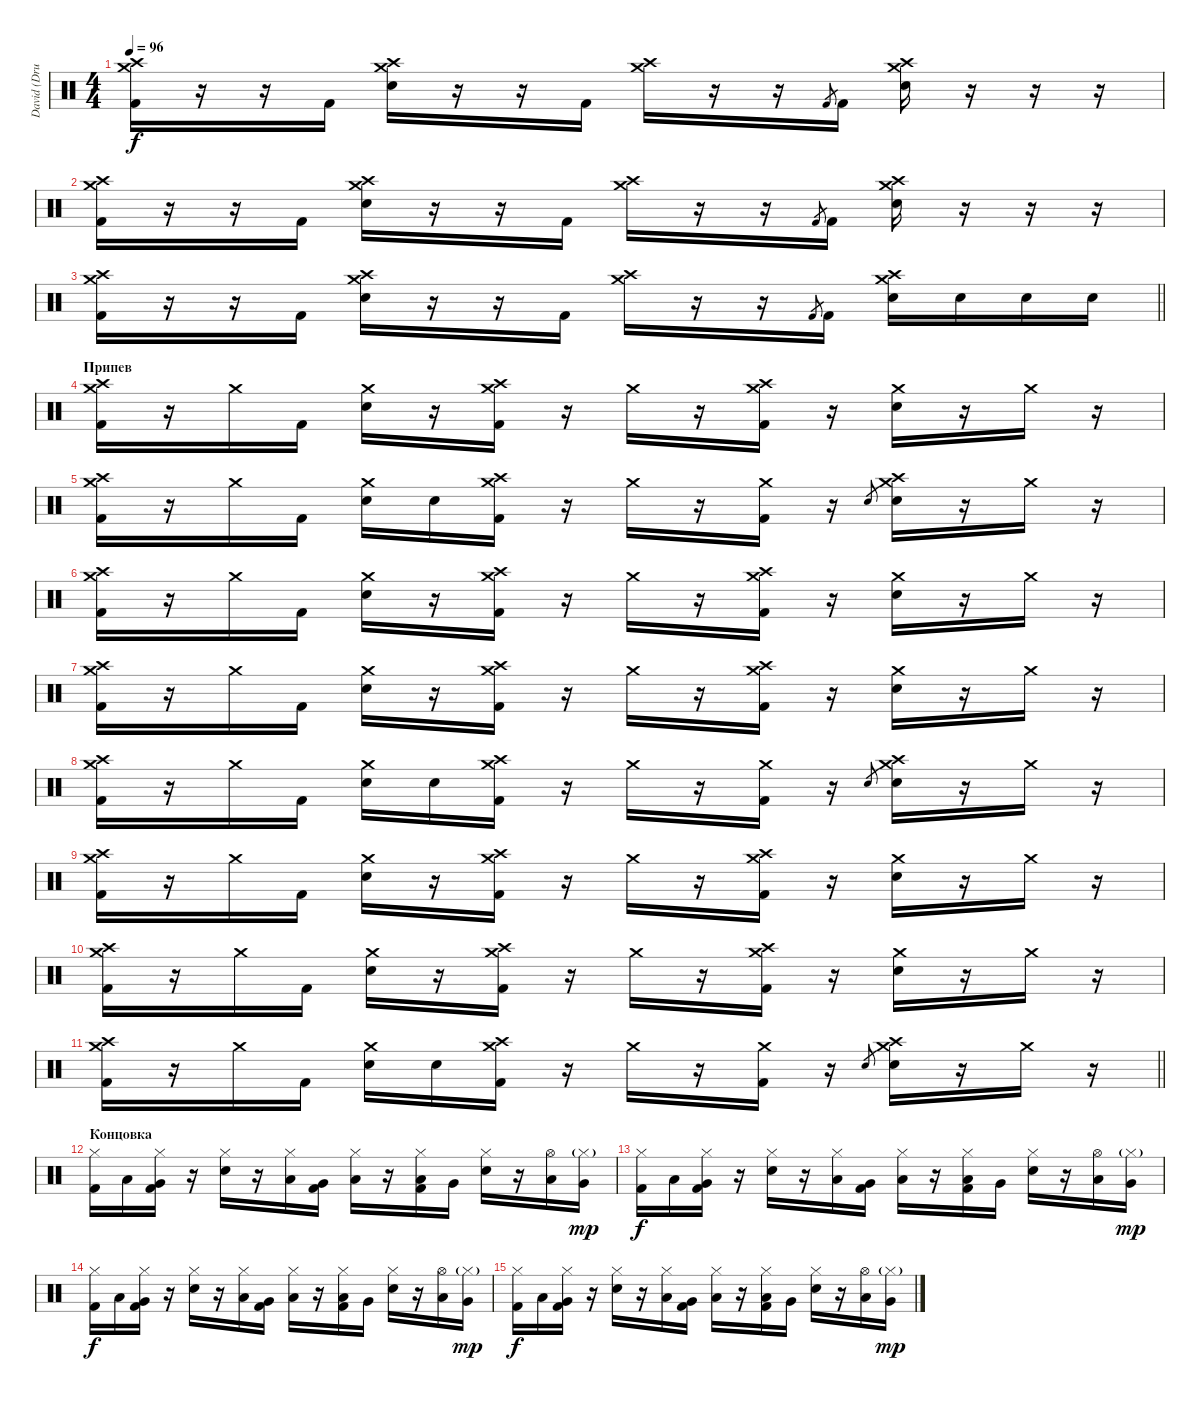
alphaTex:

\track ("David (Drums)" "David (Dru") {instrument percussion}
\staff {score}
\articulation defaults
\ts (4 4)
\tempo 96
\clef neutral
\ks c
("Crash high (hit)" "Crash medium (hit)" "Kick (hit) 2").16{dy f} r.16 r.16 "Kick (hit) 2".16 ("Crash high (hit)" "Crash medium (hit)" "Electric Snare (hit)").16 r.16 r.16 "Kick (hit) 2".16 ("Crash high (hit)" "Crash medium (hit)").16 r.16 r.16 "Kick (hit) 2".8{gr} "Kick (hit) 2".16 ("Crash high (hit)" "Crash medium (hit)" "Electric Snare (hit)").16 r.16 r.16 r.16 |
("Crash high (hit)" "Crash medium (hit)" "Kick (hit) 2").16 r.16 r.16 "Kick (hit) 2".16 ("Crash high (hit)" "Crash medium (hit)" "Electric Snare (hit)").16 r.16 r.16 "Kick (hit) 2".16 ("Crash high (hit)" "Crash medium (hit)").16 r.16 r.16 "Kick (hit) 2".8{gr} "Kick (hit) 2".16 ("Crash high (hit)" "Crash medium (hit)" "Electric Snare (hit)").16 r.16 r.16 r.16 |
\barLineRight lightlight
("Crash high (hit)" "Crash medium (hit)" "Kick (hit) 2").16 r.16 r.16 "Kick (hit) 2".16 ("Crash high (hit)" "Crash medium (hit)" "Electric Snare (hit)").16 r.16 r.16 "Kick (hit) 2".16 ("Crash high (hit)" "Crash medium (hit)").16 r.16 r.16 "Kick (hit) 2".8{gr} "Kick (hit) 2".16 ("Crash high (hit)" "Crash medium (hit)" "Electric Snare (hit)").16 "Electric Snare (hit)".16 "Electric Snare (hit)".16 "Electric Snare (hit)".16 |
\section ("" "Припев")
("Crash high (hit)" "Crash medium (hit)" "Kick (hit) 2").16 r.16 "Crash medium (hit)".16 "Kick (hit) 2".16 ("Crash medium (hit)" "Electric Snare (hit)").16 r.16 ("Crash high (hit)" "Crash medium (hit)" "Kick (hit) 2").16 r.16 "Crash medium (hit)".16 r.16 ("Crash high (hit)" "Crash medium (hit)" "Kick (hit) 2").16 r.16 ("Crash medium (hit)" "Electric Snare (hit)").16 r.16 "Crash medium (hit)".16 r.16 |
("Crash high (hit)" "Crash medium (hit)" "Kick (hit) 2").16 r.16 "Crash medium (hit)".16 "Kick (hit) 2".16 ("Crash medium (hit)" "Electric Snare (hit)").16 "Electric Snare (hit)".16 ("Crash high (hit)" "Crash medium (hit)" "Kick (hit) 2").16 r.16 "Crash medium (hit)".16 r.16 ("Crash medium (hit)" "Kick (hit) 2").16 r.16 "Electric Snare (hit)".8{gr} ("Crash high (hit)" "Crash medium (hit)" "Electric Snare (hit)").16 r.16 "Crash medium (hit)".16 r.16 |
("Crash high (hit)" "Crash medium (hit)" "Kick (hit) 2").16 r.16 "Crash medium (hit)".16 "Kick (hit) 2".16 ("Crash medium (hit)" "Electric Snare (hit)").16 r.16 ("Crash high (hit)" "Crash medium (hit)" "Kick (hit) 2").16 r.16 "Crash medium (hit)".16 r.16 ("Crash high (hit)" "Crash medium (hit)" "Kick (hit) 2").16 r.16 ("Crash medium (hit)" "Electric Snare (hit)").16 r.16 "Crash medium (hit)".16 r.16 |
("Crash high (hit)" "Crash medium (hit)" "Kick (hit) 2").16 r.16 "Crash medium (hit)".16 "Kick (hit) 2".16 ("Crash medium (hit)" "Electric Snare (hit)").16 r.16 ("Crash high (hit)" "Crash medium (hit)" "Kick (hit) 2").16 r.16 "Crash medium (hit)".16 r.16 ("Crash high (hit)" "Crash medium (hit)" "Kick (hit) 2").16 r.16 ("Crash medium (hit)" "Electric Snare (hit)").16 r.16 "Crash medium (hit)".16 r.16 |
("Crash high (hit)" "Crash medium (hit)" "Kick (hit) 2").16 r.16 "Crash medium (hit)".16 "Kick (hit) 2".16 ("Crash medium (hit)" "Electric Snare (hit)").16 "Electric Snare (hit)".16 ("Crash high (hit)" "Crash medium (hit)" "Kick (hit) 2").16 r.16 "Crash medium (hit)".16 r.16 ("Crash medium (hit)" "Kick (hit) 2").16 r.16 "Electric Snare (hit)".8{gr} ("Crash high (hit)" "Crash medium (hit)" "Electric Snare (hit)").16 r.16 "Crash medium (hit)".16 r.16 |
("Crash high (hit)" "Crash medium (hit)" "Kick (hit) 2").16 r.16 "Crash medium (hit)".16 "Kick (hit) 2".16 ("Crash medium (hit)" "Electric Snare (hit)").16 r.16 ("Crash high (hit)" "Crash medium (hit)" "Kick (hit) 2").16 r.16 "Crash medium (hit)".16 r.16 ("Crash high (hit)" "Crash medium (hit)" "Kick (hit) 2").16 r.16 ("Crash medium (hit)" "Electric Snare (hit)").16 r.16 "Crash medium (hit)".16 r.16 |
("Crash high (hit)" "Crash medium (hit)" "Kick (hit) 2").16 r.16 "Crash medium (hit)".16 "Kick (hit) 2".16 ("Crash medium (hit)" "Electric Snare (hit)").16 r.16 ("Crash high (hit)" "Crash medium (hit)" "Kick (hit) 2").16 r.16 "Crash medium (hit)".16 r.16 ("Crash high (hit)" "Crash medium (hit)" "Kick (hit) 2").16 r.16 ("Crash medium (hit)" "Electric Snare (hit)").16 r.16 "Crash medium (hit)".16 r.16 |
\barLineRight lightlight
("Crash high (hit)" "Crash medium (hit)" "Kick (hit) 2").16 r.16 "Crash medium (hit)".16 "Kick (hit) 2".16 ("Crash medium (hit)" "Electric Snare (hit)").16 "Electric Snare (hit)".16 ("Crash high (hit)" "Crash medium (hit)" "Kick (hit) 2").16 r.16 "Crash medium (hit)".16 r.16 ("Crash medium (hit)" "Kick (hit) 2").16 r.16 "Electric Snare (hit)".8{gr} ("Crash high (hit)" "Crash medium (hit)" "Electric Snare (hit)").16 r.16 "Crash medium (hit)".16 r.16 |
\section ("" "Концовка")
("Hi-Hat (closed)" "Kick (hit) 2").16 "Low Tom (hit)".16 ("Hi-Hat (closed)" "Very Low Tom (hit)" "Kick (hit) 2").16 r.16 ("Hi-Hat (closed)" "Electric Snare (hit)").16 r.16 ("Hi-Hat (closed)" "Low Tom (hit)").16 ("Very Low Tom (hit)" "Kick (hit) 2").16 ("Hi-Hat (closed)" "Low Floor Tom (hit)").16 r.16 ("Hi-Hat (closed)" "Low Tom (hit)" "Kick (hit) 2").16 "Very Low Tom (hit)".16 ("Hi-Hat (closed)" "Electric Snare (hit)").16 r.16 ("Hi-Hat (open)" "Low Tom (hit)").16 ("Hi-Hat (closed)"{g} "Very Low Tom (hit)").16{dy mp} |
("Hi-Hat (closed)" "Kick (hit) 2").16{dy f} "Low Tom (hit)".16 ("Hi-Hat (closed)" "Very Low Tom (hit)" "Kick (hit) 2").16 r.16 ("Hi-Hat (closed)" "Electric Snare (hit)").16 r.16 ("Hi-Hat (closed)" "Low Tom (hit)").16 ("Very Low Tom (hit)" "Kick (hit) 2").16 ("Hi-Hat (closed)" "Low Floor Tom (hit)").16 r.16 ("Hi-Hat (closed)" "Low Tom (hit)" "Kick (hit) 2").16 "Very Low Tom (hit)".16 ("Hi-Hat (closed)" "Electric Snare (hit)").16 r.16 ("Hi-Hat (open)" "Low Tom (hit)").16 ("Hi-Hat (closed)"{g} "Very Low Tom (hit)").16{dy mp} |
("Hi-Hat (closed)" "Kick (hit) 2").16{dy f} "Low Tom (hit)".16 ("Hi-Hat (closed)" "Very Low Tom (hit)" "Kick (hit) 2").16 r.16 ("Hi-Hat (closed)" "Electric Snare (hit)").16 r.16 ("Hi-Hat (closed)" "Low Tom (hit)").16 ("Very Low Tom (hit)" "Kick (hit) 2").16 ("Hi-Hat (closed)" "Low Floor Tom (hit)").16 r.16 ("Hi-Hat (closed)" "Low Tom (hit)" "Kick (hit) 2").16 "Very Low Tom (hit)".16 ("Hi-Hat (closed)" "Electric Snare (hit)").16 r.16 ("Hi-Hat (open)" "Low Tom (hit)").16 ("Hi-Hat (closed)"{g} "Very Low Tom (hit)").16{dy mp} |
("Hi-Hat (closed)" "Kick (hit) 2").16{dy f} "Low Tom (hit)".16 ("Hi-Hat (closed)" "Very Low Tom (hit)" "Kick (hit) 2").16 r.16 ("Hi-Hat (closed)" "Electric Snare (hit)").16 r.16 ("Hi-Hat (closed)" "Low Tom (hit)").16 ("Very Low Tom (hit)" "Kick (hit) 2").16 ("Hi-Hat (closed)" "Low Floor Tom (hit)").16 r.16 ("Hi-Hat (closed)" "Low Tom (hit)" "Kick (hit) 2").16 "Very Low Tom (hit)".16 ("Hi-Hat (closed)" "Electric Snare (hit)").16 r.16 ("Hi-Hat (open)" "Low Tom (hit)").16 ("Hi-Hat (closed)"{g} "Very Low Tom (hit)").16{dy mp}
